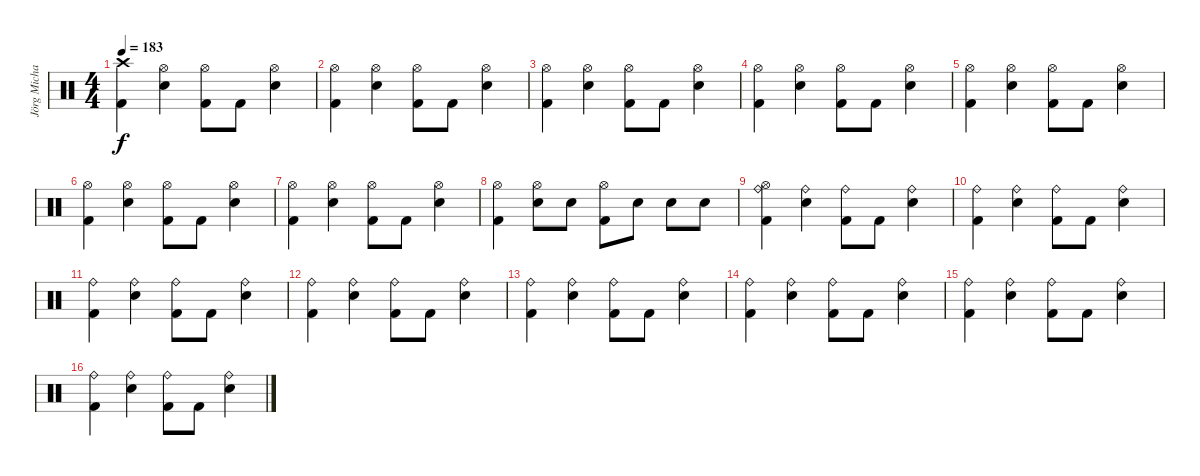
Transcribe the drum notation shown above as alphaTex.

\track ("Jörg Michael" "Jörg Micha") {instrument percussion}
\staff {score}
\articulation defaults
\ts (4 4)
\tempo 183
\clef neutral
\ks c
("Kick (hit) 2" "Crash high (hit)").4{dy f} ("Snare (hit) 2" "Hi-Hat (open)").4 ("Kick (hit) 2" "Hi-Hat (open)").8 "Kick (hit) 2".8 ("Snare (hit) 2" "Hi-Hat (open)").4 |
("Kick (hit) 2" "Hi-Hat (open)").4 ("Snare (hit) 2" "Hi-Hat (open)").4 ("Kick (hit) 2" "Hi-Hat (open)").8 "Kick (hit) 2".8 ("Snare (hit) 2" "Hi-Hat (open)").4 |
("Kick (hit) 2" "Hi-Hat (open)").4 ("Snare (hit) 2" "Hi-Hat (open)").4 ("Kick (hit) 2" "Hi-Hat (open)").8 "Kick (hit) 2".8 ("Snare (hit) 2" "Hi-Hat (open)").4 |
("Kick (hit) 2" "Hi-Hat (open)").4 ("Snare (hit) 2" "Hi-Hat (open)").4 ("Kick (hit) 2" "Hi-Hat (open)").8 "Kick (hit) 2".8 ("Snare (hit) 2" "Hi-Hat (open)").4 |
("Kick (hit) 2" "Hi-Hat (open)").4 ("Snare (hit) 2" "Hi-Hat (open)").4 ("Kick (hit) 2" "Hi-Hat (open)").8 "Kick (hit) 2".8 ("Snare (hit) 2" "Hi-Hat (open)").4 |
("Kick (hit) 2" "Hi-Hat (open)").4 ("Snare (hit) 2" "Hi-Hat (open)").4 ("Kick (hit) 2" "Hi-Hat (open)").8 "Kick (hit) 2".8 ("Snare (hit) 2" "Hi-Hat (open)").4 |
("Kick (hit) 2" "Hi-Hat (open)").4 ("Snare (hit) 2" "Hi-Hat (open)").4 ("Kick (hit) 2" "Hi-Hat (open)").8 "Kick (hit) 2".8 ("Snare (hit) 2" "Hi-Hat (open)").4 |
("Hi-Hat (open)" "Kick (hit) 2").4 ("Snare (hit) 2" "Hi-Hat (open)").8 "Snare (hit) 2".8 ("Kick (hit) 2" "Hi-Hat (open)").8 "Snare (hit) 2".8 "Snare (hit) 2".8 "Snare (hit) 2".8 |
("Kick (hit) 2" "Hi-Hat (open)" "Ride (bell)").4 ("Snare (hit) 2" "Ride (bell)").4 ("Kick (hit) 2" "Ride (bell)").8 "Kick (hit) 2".8 ("Snare (hit) 2" "Ride (bell)").4 |
("Kick (hit) 2" "Ride (bell)").4 ("Snare (hit) 2" "Ride (bell)").4 ("Kick (hit) 2" "Ride (bell)").8 "Kick (hit) 2".8 ("Snare (hit) 2" "Ride (bell)").4 |
("Kick (hit) 2" "Ride (bell)").4 ("Snare (hit) 2" "Ride (bell)").4 ("Kick (hit) 2" "Ride (bell)").8 "Kick (hit) 2".8 ("Snare (hit) 2" "Ride (bell)").4 |
("Kick (hit) 2" "Ride (bell)").4 ("Snare (hit) 2" "Ride (bell)").4 ("Kick (hit) 2" "Ride (bell)").8 "Kick (hit) 2".8 ("Snare (hit) 2" "Ride (bell)").4 |
("Kick (hit) 2" "Ride (bell)").4 ("Snare (hit) 2" "Ride (bell)").4 ("Kick (hit) 2" "Ride (bell)").8 "Kick (hit) 2".8 ("Snare (hit) 2" "Ride (bell)").4 |
("Kick (hit) 2" "Ride (bell)").4 ("Snare (hit) 2" "Ride (bell)").4 ("Kick (hit) 2" "Ride (bell)").8 "Kick (hit) 2".8 ("Snare (hit) 2" "Ride (bell)").4 |
("Kick (hit) 2" "Ride (bell)").4 ("Snare (hit) 2" "Ride (bell)").4 ("Kick (hit) 2" "Ride (bell)").8 "Kick (hit) 2".8 ("Snare (hit) 2" "Ride (bell)").4 |
("Kick (hit) 2" "Ride (bell)").4 ("Snare (hit) 2" "Ride (bell)").4 ("Kick (hit) 2" "Ride (bell)").8 "Kick (hit) 2".8 ("Snare (hit) 2" "Ride (bell)").4
